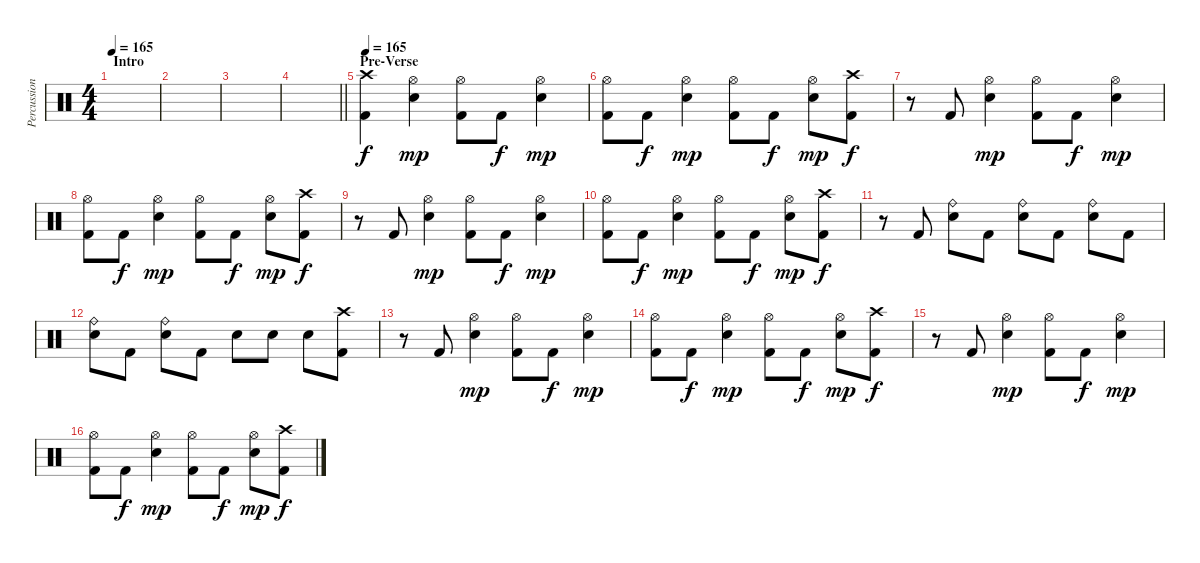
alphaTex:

\track ("Percussion" "Percussion") {instrument percussion}
\staff {score}
\articulation defaults
\ts (4 4)
\section ("" "Intro")
\tempo 165
\tempo 83
\tempo 165
\clef neutral
\ks c
|
|
|
\barLineRight lightlight
|
\section ("" "Pre-Verse")
\tempo 165
("Crash high (hit)" "Kick (hit) 2").4 ("Hi-Hat (open)" "Electric Snare (hit)").4{dy mp} ("Hi-Hat (open)" "Kick (hit) 2").8 "Kick (hit) 2".8{dy f} ("Hi-Hat (open)" "Electric Snare (hit)").4{dy mp} |
("Hi-Hat (open)" "Kick (hit) 2").8 "Kick (hit) 2".8{dy f} ("Hi-Hat (open)" "Electric Snare (hit)").4{dy mp} ("Hi-Hat (open)" "Kick (hit) 2").8 "Kick (hit) 2".8{dy f} ("Hi-Hat (open)" "Electric Snare (hit)").8{dy mp} ("Crash high (hit)" "Kick (hit) 2").8{dy f} |
r.8 "Kick (hit) 2".8 ("Hi-Hat (open)" "Electric Snare (hit)").4{dy mp} ("Hi-Hat (open)" "Kick (hit) 2").8 "Kick (hit) 2".8{dy f} ("Hi-Hat (open)" "Electric Snare (hit)").4{dy mp} |
("Hi-Hat (open)" "Kick (hit) 2").8 "Kick (hit) 2".8{dy f} ("Hi-Hat (open)" "Electric Snare (hit)").4{dy mp} ("Hi-Hat (open)" "Kick (hit) 2").8 "Kick (hit) 2".8{dy f} ("Hi-Hat (open)" "Electric Snare (hit)").8{dy mp} ("Crash high (hit)" "Kick (hit) 2").8{dy f} |
r.8 "Kick (hit) 2".8 ("Hi-Hat (open)" "Electric Snare (hit)").4{dy mp} ("Hi-Hat (open)" "Kick (hit) 2").8 "Kick (hit) 2".8{dy f} ("Hi-Hat (open)" "Electric Snare (hit)").4{dy mp} |
("Hi-Hat (open)" "Kick (hit) 2").8 "Kick (hit) 2".8{dy f} ("Hi-Hat (open)" "Electric Snare (hit)").4{dy mp} ("Hi-Hat (open)" "Kick (hit) 2").8 "Kick (hit) 2".8{dy f} ("Hi-Hat (open)" "Electric Snare (hit)").8{dy mp} ("Crash high (hit)" "Kick (hit) 2").8{dy f} |
r.8 "Kick (hit) 2".8 ("Ride (bell)" "Electric Snare (hit)").8 "Kick (hit) 2".8 ("Ride (bell)" "Electric Snare (hit)").8 "Kick (hit) 2".8 ("Ride (bell)" "Electric Snare (hit)").8 "Kick (hit) 2".8 |
("Ride (bell)" "Electric Snare (hit)").8 "Kick (hit) 2".8 ("Ride (bell)" "Electric Snare (hit)").8 "Kick (hit) 2".8 "Electric Snare (hit)".8 "Electric Snare (hit)".8 "Electric Snare (hit)".8 ("Crash high (hit)" "Kick (hit) 2").8 |
r.8 "Kick (hit) 2".8 ("Hi-Hat (open)" "Electric Snare (hit)").4{dy mp} ("Hi-Hat (open)" "Kick (hit) 2").8 "Kick (hit) 2".8{dy f} ("Hi-Hat (open)" "Electric Snare (hit)").4{dy mp} |
("Hi-Hat (open)" "Kick (hit) 2").8 "Kick (hit) 2".8{dy f} ("Hi-Hat (open)" "Electric Snare (hit)").4{dy mp} ("Hi-Hat (open)" "Kick (hit) 2").8 "Kick (hit) 2".8{dy f} ("Hi-Hat (open)" "Electric Snare (hit)").8{dy mp} ("Crash high (hit)" "Kick (hit) 2").8{dy f} |
r.8 "Kick (hit) 2".8 ("Hi-Hat (open)" "Electric Snare (hit)").4{dy mp} ("Hi-Hat (open)" "Kick (hit) 2").8 "Kick (hit) 2".8{dy f} ("Hi-Hat (open)" "Electric Snare (hit)").4{dy mp} |
("Hi-Hat (open)" "Kick (hit) 2").8 "Kick (hit) 2".8{dy f} ("Hi-Hat (open)" "Electric Snare (hit)").4{dy mp} ("Hi-Hat (open)" "Kick (hit) 2").8 "Kick (hit) 2".8{dy f} ("Hi-Hat (open)" "Electric Snare (hit)").8{dy mp} ("Crash high (hit)" "Kick (hit) 2").8{dy f}
